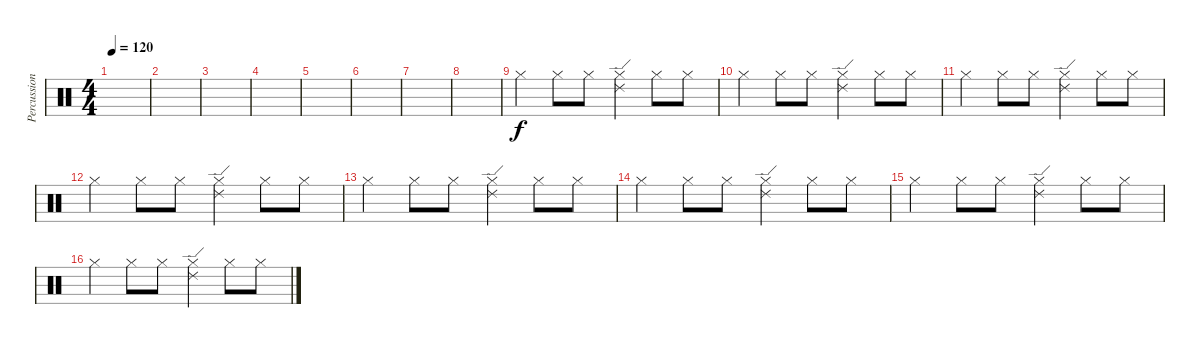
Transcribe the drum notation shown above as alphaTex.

\track ("Percussions" "Percussion") {instrument percussion}
\staff {score}
\articulation defaults
\ts (4 4)
\tempo 120
\clef neutral
\ks c
|
|
|
|
|
|
|
|
"Hi-Hat (closed)".4 "Hi-Hat (closed)".8 "Hi-Hat (closed)".8 ("Hi-Hat (closed)" "Ride (edge) 2").4 "Hi-Hat (closed)".8 "Hi-Hat (closed)".8 |
"Hi-Hat (closed)".4 "Hi-Hat (closed)".8 "Hi-Hat (closed)".8 ("Hi-Hat (closed)" "Ride (edge) 2").4 "Hi-Hat (closed)".8 "Hi-Hat (closed)".8 |
"Hi-Hat (closed)".4 "Hi-Hat (closed)".8 "Hi-Hat (closed)".8 ("Hi-Hat (closed)" "Ride (edge) 2").4 "Hi-Hat (closed)".8 "Hi-Hat (closed)".8 |
"Hi-Hat (closed)".4 "Hi-Hat (closed)".8 "Hi-Hat (closed)".8 ("Hi-Hat (closed)" "Ride (edge) 2").4 "Hi-Hat (closed)".8 "Hi-Hat (closed)".8 |
"Hi-Hat (closed)".4 "Hi-Hat (closed)".8 "Hi-Hat (closed)".8 ("Hi-Hat (closed)" "Ride (edge) 2").4 "Hi-Hat (closed)".8 "Hi-Hat (closed)".8 |
"Hi-Hat (closed)".4 "Hi-Hat (closed)".8 "Hi-Hat (closed)".8 ("Hi-Hat (closed)" "Ride (edge) 2").4 "Hi-Hat (closed)".8 "Hi-Hat (closed)".8 |
"Hi-Hat (closed)".4 "Hi-Hat (closed)".8 "Hi-Hat (closed)".8 ("Hi-Hat (closed)" "Ride (edge) 2").4 "Hi-Hat (closed)".8 "Hi-Hat (closed)".8 |
"Hi-Hat (closed)".4 "Hi-Hat (closed)".8 "Hi-Hat (closed)".8 ("Hi-Hat (closed)" "Ride (edge) 2").4 "Hi-Hat (closed)".8 "Hi-Hat (closed)".8
